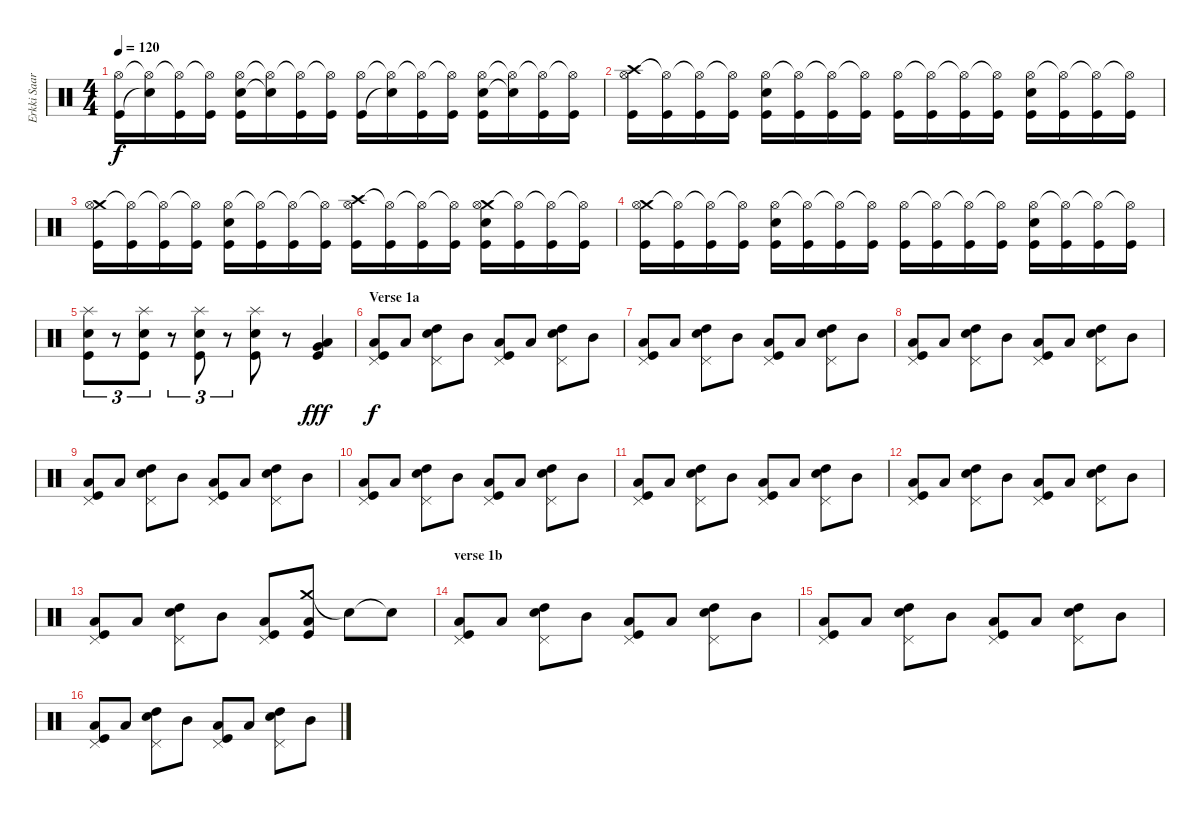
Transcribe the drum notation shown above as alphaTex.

\track ("Erkki Saarinen" "Erkki Saar") {instrument percussion}
\staff {score}
\articulation defaults
\ts (4 4)
\tempo 120
\clef neutral
\ks c
("Hi-Hat (open)" "Kick (hit)").16{dy f} ("Hi-Hat (open)"{t} "Snare (hit)"{t}).16 ("Hi-Hat (open)"{t} "Kick (hit)").16 ("Hi-Hat (open)"{t} "Kick (hit)").16 ("Hi-Hat (open)" "Snare (hit) 2" "Kick (hit)").16 ("Hi-Hat (open)"{t} "Snare (hit)"{t}).16 ("Hi-Hat (open)"{t} "Kick (hit)").16 ("Hi-Hat (open)"{t} "Kick (hit)").16 ("Hi-Hat (open)" "Kick (hit)").16 ("Hi-Hat (open)"{t} "Snare (hit)"{t}).16 ("Hi-Hat (open)"{t} "Kick (hit)").16 ("Hi-Hat (open)"{t} "Kick (hit)").16 ("Hi-Hat (open)" "Snare (hit) 2" "Kick (hit)").16 ("Hi-Hat (open)"{t} "Snare (hit)"{t}).16 ("Hi-Hat (open)"{t} "Kick (hit)").16 ("Hi-Hat (open)"{t} "Kick (hit)").16 |
("Crash high (hit)" "Hi-Hat (open)" "Kick (hit)").16 ("Hi-Hat (open)"{t} "Kick (hit)").16 ("Hi-Hat (open)"{t} "Kick (hit)").16 ("Hi-Hat (open)"{t} "Kick (hit)").16 ("Hi-Hat (open)" "Snare (hit) 2" "Kick (hit)").16 ("Hi-Hat (open)"{t} "Kick (hit)").16 ("Hi-Hat (open)"{t} "Kick (hit)").16 ("Hi-Hat (open)"{t} "Kick (hit)").16 ("Hi-Hat (open)" "Kick (hit)").16 ("Hi-Hat (open)"{t} "Kick (hit)").16 ("Hi-Hat (open)"{t} "Kick (hit)").16 ("Hi-Hat (open)"{t} "Kick (hit)").16 ("Hi-Hat (open)" "Snare (hit) 2" "Kick (hit)").16 ("Hi-Hat (open)"{t} "Kick (hit)").16 ("Hi-Hat (open)"{t} "Kick (hit)").16 ("Hi-Hat (open)"{t} "Kick (hit)").16 |
("Crash medium (hit)" "Hi-Hat (open)" "Kick (hit)").16 ("Hi-Hat (open)"{t} "Kick (hit)").16 ("Hi-Hat (open)"{t} "Kick (hit)").16 ("Hi-Hat (open)"{t} "Kick (hit)").16 ("Hi-Hat (open)" "Snare (hit) 2" "Kick (hit)").16 ("Hi-Hat (open)"{t} "Kick (hit)").16 ("Hi-Hat (open)"{t} "Kick (hit)").16 ("Hi-Hat (open)"{t} "Kick (hit)").16 ("Crash high (hit)" "Hi-Hat (open)" "Kick (hit)").16 ("Hi-Hat (open)"{t} "Kick (hit)").16 ("Hi-Hat (open)"{t} "Kick (hit)").16 ("Hi-Hat (open)"{t} "Kick (hit)").16 ("Crash medium (hit)" "Hi-Hat (open)" "Snare (hit) 2" "Kick (hit)").16 ("Hi-Hat (open)"{t} "Kick (hit)").16 ("Hi-Hat (open)"{t} "Kick (hit)").16 ("Hi-Hat (open)"{t} "Kick (hit)").16 |
("Crash medium (hit)" "Hi-Hat (open)" "Kick (hit)").16 ("Hi-Hat (open)"{t} "Kick (hit)").16 ("Hi-Hat (open)"{t} "Kick (hit)").16 ("Hi-Hat (open)"{t} "Kick (hit)").16 ("Hi-Hat (open)" "Snare (hit) 2" "Kick (hit)").16 ("Hi-Hat (open)"{t} "Kick (hit)").16 ("Hi-Hat (open)"{t} "Kick (hit)").16 ("Hi-Hat (open)"{t} "Kick (hit)").16 ("Hi-Hat (open)" "Kick (hit)").16 ("Hi-Hat (open)"{t} "Kick (hit)").16 ("Hi-Hat (open)"{t} "Kick (hit)").16 ("Hi-Hat (open)"{t} "Kick (hit)").16 ("Hi-Hat (open)" "Snare (hit) 2" "Kick (hit)").16 ("Hi-Hat (open)"{t} "Kick (hit)").16 ("Hi-Hat (open)"{t} "Kick (hit)").16 ("Hi-Hat (open)"{t} "Kick (hit)").16 |
("Splash (hit)" "Snare (hit) 2" "Kick (hit)").8{tu (3 2)} r.8{tu (3 2)} ("Splash (hit)" "Snare (hit) 2" "Kick (hit)").8{tu (3 2)} r.8{tu (3 2)} ("Splash (hit)" "Snare (hit) 2" "Kick (hit)").8{tu (3 2)} r.8{tu (3 2)} ("Splash (hit)" "Snare (hit) 2" "Kick (hit)").8 r.8 ("Low Tom (hit)" "Kick (hit)" "Very Low Tom (hit)").4{dy fff volume 10} |
\section ("" "Verse 1a")
("Pedal Hi-Hat (hit)" "Low Tom (hit)" "Kick (hit)").8{dy f volume 10} "Low Tom (hit)".8 ("Pedal Hi-Hat (hit)" "High Tom (hit)" "Snare (hit) 2").8 "Mid Tom (hit)".8 ("Pedal Hi-Hat (hit)" "Low Tom (hit)" "Kick (hit)").8 "Low Tom (hit)".8 ("Pedal Hi-Hat (hit)" "High Tom (hit)" "Snare (hit) 2").8 "Mid Tom (hit)".8 |
("Pedal Hi-Hat (hit)" "Low Tom (hit)" "Kick (hit)").8{volume 10} "Low Tom (hit)".8 ("Pedal Hi-Hat (hit)" "High Tom (hit)" "Snare (hit) 2").8 "Mid Tom (hit)".8 ("Pedal Hi-Hat (hit)" "Low Tom (hit)" "Kick (hit)").8 "Low Tom (hit)".8 ("Pedal Hi-Hat (hit)" "High Tom (hit)" "Snare (hit) 2").8 "Mid Tom (hit)".8 |
("Pedal Hi-Hat (hit)" "Low Tom (hit)" "Kick (hit)").8{volume 10} "Low Tom (hit)".8 ("Pedal Hi-Hat (hit)" "High Tom (hit)" "Snare (hit) 2").8 "Mid Tom (hit)".8 ("Pedal Hi-Hat (hit)" "Low Tom (hit)" "Kick (hit)").8 "Low Tom (hit)".8 ("Pedal Hi-Hat (hit)" "High Tom (hit)" "Snare (hit) 2").8 "Mid Tom (hit)".8 |
("Pedal Hi-Hat (hit)" "Low Tom (hit)" "Kick (hit)").8{volume 10} "Low Tom (hit)".8 ("Pedal Hi-Hat (hit)" "High Tom (hit)" "Snare (hit) 2").8 "Mid Tom (hit)".8 ("Pedal Hi-Hat (hit)" "Low Tom (hit)" "Kick (hit)").8 "Low Tom (hit)".8 ("Pedal Hi-Hat (hit)" "High Tom (hit)" "Snare (hit) 2").8 "Mid Tom (hit)".8 |
("Pedal Hi-Hat (hit)" "Low Tom (hit)" "Kick (hit)").8{volume 10} "Low Tom (hit)".8 ("Pedal Hi-Hat (hit)" "High Tom (hit)" "Snare (hit) 2").8 "Mid Tom (hit)".8 ("Pedal Hi-Hat (hit)" "Low Tom (hit)" "Kick (hit)").8 "Low Tom (hit)".8 ("Pedal Hi-Hat (hit)" "High Tom (hit)" "Snare (hit) 2").8 "Mid Tom (hit)".8 |
("Pedal Hi-Hat (hit)" "Low Tom (hit)" "Kick (hit)").8{volume 10} "Low Tom (hit)".8 ("Pedal Hi-Hat (hit)" "High Tom (hit)" "Snare (hit) 2").8 "Mid Tom (hit)".8 ("Pedal Hi-Hat (hit)" "Low Tom (hit)" "Kick (hit)").8 "Low Tom (hit)".8 ("Pedal Hi-Hat (hit)" "High Tom (hit)" "Snare (hit) 2").8 "Mid Tom (hit)".8 |
("Pedal Hi-Hat (hit)" "Low Tom (hit)" "Kick (hit)").8{volume 10} "Low Tom (hit)".8 ("Pedal Hi-Hat (hit)" "High Tom (hit)" "Snare (hit) 2").8 "Mid Tom (hit)".8 ("Pedal Hi-Hat (hit)" "Low Tom (hit)" "Kick (hit)").8 "Low Tom (hit)".8 ("Pedal Hi-Hat (hit)" "High Tom (hit)" "Snare (hit) 2").8 "Mid Tom (hit)".8 |
("Pedal Hi-Hat (hit)" "Low Tom (hit)" "Kick (hit)").8 "Low Tom (hit)".8 ("Pedal Hi-Hat (hit)" "High Tom (hit)" "Snare (hit) 2").8 "Mid Tom (hit)".8 ("Pedal Hi-Hat (hit)" "Low Tom (hit)" "Kick (hit)").8 ("Crash medium (hit)" "Low Tom (hit)" "Kick (hit)").8 "Snare (hit)"{t}.8 "Snare (hit)"{t}.8 |
\section ("" "verse 1b")
("Pedal Hi-Hat (hit)" "Low Tom (hit)" "Kick (hit)").8{volume 10} "Low Tom (hit)".8 ("Pedal Hi-Hat (hit)" "High Tom (hit)" "Snare (hit) 2").8 "Mid Tom (hit)".8 ("Pedal Hi-Hat (hit)" "Low Tom (hit)" "Kick (hit)").8 "Low Tom (hit)".8 ("Pedal Hi-Hat (hit)" "High Tom (hit)" "Snare (hit) 2").8 "Mid Tom (hit)".8 |
("Pedal Hi-Hat (hit)" "Low Tom (hit)" "Kick (hit)").8{volume 10} "Low Tom (hit)".8 ("Pedal Hi-Hat (hit)" "High Tom (hit)" "Snare (hit) 2").8 "Mid Tom (hit)".8 ("Pedal Hi-Hat (hit)" "Low Tom (hit)" "Kick (hit)").8 "Low Tom (hit)".8 ("Pedal Hi-Hat (hit)" "High Tom (hit)" "Snare (hit) 2").8 "Mid Tom (hit)".8 |
("Pedal Hi-Hat (hit)" "Low Tom (hit)" "Kick (hit)").8{volume 10} "Low Tom (hit)".8 ("Pedal Hi-Hat (hit)" "High Tom (hit)" "Snare (hit) 2").8 "Mid Tom (hit)".8 ("Pedal Hi-Hat (hit)" "Low Tom (hit)" "Kick (hit)").8 "Low Tom (hit)".8 ("Pedal Hi-Hat (hit)" "High Tom (hit)" "Snare (hit) 2").8 "Mid Tom (hit)".8
